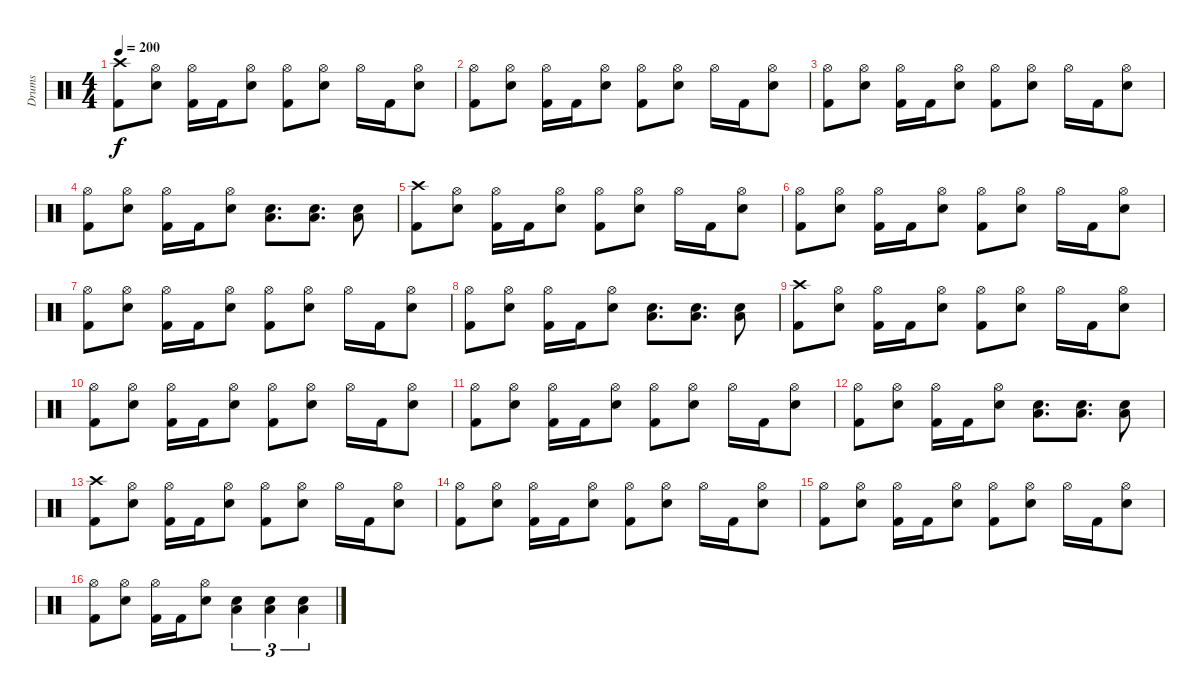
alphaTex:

\track ("Drums" "Drums") {instrument percussion}
\staff {score}
\articulation defaults
\ts (4 4)
\tempo 200
\clef neutral
\ks c
("Crash high (hit)" "Kick (hit) 2").8{dy f} ("Hi-Hat (open)" "Electric Snare (hit)").8 ("Hi-Hat (open)" "Kick (hit) 2").16 "Kick (hit) 2".16 ("Hi-Hat (open)" "Electric Snare (hit)").8 ("Hi-Hat (open)" "Kick (hit) 2").8 ("Hi-Hat (open)" "Electric Snare (hit)").8 "Hi-Hat (open)".16 "Kick (hit) 2".16 ("Hi-Hat (open)" "Electric Snare (hit)").8 |
("Hi-Hat (open)" "Kick (hit) 2").8 ("Hi-Hat (open)" "Electric Snare (hit)").8 ("Hi-Hat (open)" "Kick (hit) 2").16 "Kick (hit) 2".16 ("Hi-Hat (open)" "Electric Snare (hit)").8 ("Hi-Hat (open)" "Kick (hit) 2").8 ("Hi-Hat (open)" "Electric Snare (hit)").8 "Hi-Hat (open)".16 "Kick (hit) 2".16 ("Hi-Hat (open)" "Electric Snare (hit)").8 |
("Hi-Hat (open)" "Kick (hit) 2").8 ("Hi-Hat (open)" "Electric Snare (hit)").8 ("Hi-Hat (open)" "Kick (hit) 2").16 "Kick (hit) 2".16 ("Hi-Hat (open)" "Electric Snare (hit)").8 ("Hi-Hat (open)" "Kick (hit) 2").8 ("Hi-Hat (open)" "Electric Snare (hit)").8 "Hi-Hat (open)".16 "Kick (hit) 2".16 ("Hi-Hat (open)" "Electric Snare (hit)").8 |
("Hi-Hat (open)" "Kick (hit) 2").8 ("Hi-Hat (open)" "Electric Snare (hit)").8 ("Hi-Hat (open)" "Kick (hit) 2").16 "Kick (hit) 2".16 ("Hi-Hat (open)" "Electric Snare (hit)").8 ("Low Tom (hit)" "Electric Snare (hit)").8{d} ("Low Tom (hit)" "Electric Snare (hit)").8{d} ("Low Tom (hit)" "Electric Snare (hit)").8 |
("Crash high (hit)" "Kick (hit) 2").8 ("Hi-Hat (open)" "Electric Snare (hit)").8 ("Hi-Hat (open)" "Kick (hit) 2").16 "Kick (hit) 2".16 ("Hi-Hat (open)" "Electric Snare (hit)").8 ("Hi-Hat (open)" "Kick (hit) 2").8 ("Hi-Hat (open)" "Electric Snare (hit)").8 "Hi-Hat (open)".16 "Kick (hit) 2".16 ("Hi-Hat (open)" "Electric Snare (hit)").8 |
("Hi-Hat (open)" "Kick (hit) 2").8 ("Hi-Hat (open)" "Electric Snare (hit)").8 ("Hi-Hat (open)" "Kick (hit) 2").16 "Kick (hit) 2".16 ("Hi-Hat (open)" "Electric Snare (hit)").8 ("Hi-Hat (open)" "Kick (hit) 2").8 ("Hi-Hat (open)" "Electric Snare (hit)").8 "Hi-Hat (open)".16 "Kick (hit) 2".16 ("Hi-Hat (open)" "Electric Snare (hit)").8 |
("Hi-Hat (open)" "Kick (hit) 2").8 ("Hi-Hat (open)" "Electric Snare (hit)").8 ("Hi-Hat (open)" "Kick (hit) 2").16 "Kick (hit) 2".16 ("Hi-Hat (open)" "Electric Snare (hit)").8 ("Hi-Hat (open)" "Kick (hit) 2").8 ("Hi-Hat (open)" "Electric Snare (hit)").8 "Hi-Hat (open)".16 "Kick (hit) 2".16 ("Hi-Hat (open)" "Electric Snare (hit)").8 |
("Hi-Hat (open)" "Kick (hit) 2").8 ("Hi-Hat (open)" "Electric Snare (hit)").8 ("Hi-Hat (open)" "Kick (hit) 2").16 "Kick (hit) 2".16 ("Hi-Hat (open)" "Electric Snare (hit)").8 ("Low Tom (hit)" "Electric Snare (hit)").8{d} ("Low Tom (hit)" "Electric Snare (hit)").8{d} ("Low Tom (hit)" "Electric Snare (hit)").8 |
("Crash high (hit)" "Kick (hit) 2").8 ("Hi-Hat (open)" "Electric Snare (hit)").8 ("Hi-Hat (open)" "Kick (hit) 2").16 "Kick (hit) 2".16 ("Hi-Hat (open)" "Electric Snare (hit)").8 ("Hi-Hat (open)" "Kick (hit) 2").8 ("Hi-Hat (open)" "Electric Snare (hit)").8 "Hi-Hat (open)".16 "Kick (hit) 2".16 ("Hi-Hat (open)" "Electric Snare (hit)").8 |
("Hi-Hat (open)" "Kick (hit) 2").8 ("Hi-Hat (open)" "Electric Snare (hit)").8 ("Hi-Hat (open)" "Kick (hit) 2").16 "Kick (hit) 2".16 ("Hi-Hat (open)" "Electric Snare (hit)").8 ("Hi-Hat (open)" "Kick (hit) 2").8 ("Hi-Hat (open)" "Electric Snare (hit)").8 "Hi-Hat (open)".16 "Kick (hit) 2".16 ("Hi-Hat (open)" "Electric Snare (hit)").8 |
("Hi-Hat (open)" "Kick (hit) 2").8 ("Hi-Hat (open)" "Electric Snare (hit)").8 ("Hi-Hat (open)" "Kick (hit) 2").16 "Kick (hit) 2".16 ("Hi-Hat (open)" "Electric Snare (hit)").8 ("Hi-Hat (open)" "Kick (hit) 2").8 ("Hi-Hat (open)" "Electric Snare (hit)").8 "Hi-Hat (open)".16 "Kick (hit) 2".16 ("Hi-Hat (open)" "Electric Snare (hit)").8 |
("Hi-Hat (open)" "Kick (hit) 2").8 ("Hi-Hat (open)" "Electric Snare (hit)").8 ("Hi-Hat (open)" "Kick (hit) 2").16 "Kick (hit) 2".16 ("Hi-Hat (open)" "Electric Snare (hit)").8 ("Low Tom (hit)" "Electric Snare (hit)").8{d} ("Low Tom (hit)" "Electric Snare (hit)").8{d} ("Low Tom (hit)" "Electric Snare (hit)").8 |
("Crash high (hit)" "Kick (hit) 2").8 ("Hi-Hat (open)" "Electric Snare (hit)").8 ("Hi-Hat (open)" "Kick (hit) 2").16 "Kick (hit) 2".16 ("Hi-Hat (open)" "Electric Snare (hit)").8 ("Hi-Hat (open)" "Kick (hit) 2").8 ("Hi-Hat (open)" "Electric Snare (hit)").8 "Hi-Hat (open)".16 "Kick (hit) 2".16 ("Hi-Hat (open)" "Electric Snare (hit)").8 |
("Hi-Hat (open)" "Kick (hit) 2").8 ("Hi-Hat (open)" "Electric Snare (hit)").8 ("Hi-Hat (open)" "Kick (hit) 2").16 "Kick (hit) 2".16 ("Hi-Hat (open)" "Electric Snare (hit)").8 ("Hi-Hat (open)" "Kick (hit) 2").8 ("Hi-Hat (open)" "Electric Snare (hit)").8 "Hi-Hat (open)".16 "Kick (hit) 2".16 ("Hi-Hat (open)" "Electric Snare (hit)").8 |
("Hi-Hat (open)" "Kick (hit) 2").8 ("Hi-Hat (open)" "Electric Snare (hit)").8 ("Hi-Hat (open)" "Kick (hit) 2").16 "Kick (hit) 2".16 ("Hi-Hat (open)" "Electric Snare (hit)").8 ("Hi-Hat (open)" "Kick (hit) 2").8 ("Hi-Hat (open)" "Electric Snare (hit)").8 "Hi-Hat (open)".16 "Kick (hit) 2".16 ("Hi-Hat (open)" "Electric Snare (hit)").8 |
("Hi-Hat (open)" "Kick (hit) 2").8 ("Hi-Hat (open)" "Electric Snare (hit)").8 ("Hi-Hat (open)" "Kick (hit) 2").16 "Kick (hit) 2".16 ("Hi-Hat (open)" "Electric Snare (hit)").8 ("Low Tom (hit)" "Electric Snare (hit)").4{tu (3 2)} ("Low Tom (hit)" "Electric Snare (hit)").4{tu (3 2)} ("Low Tom (hit)" "Electric Snare (hit)").4{tu (3 2)}
